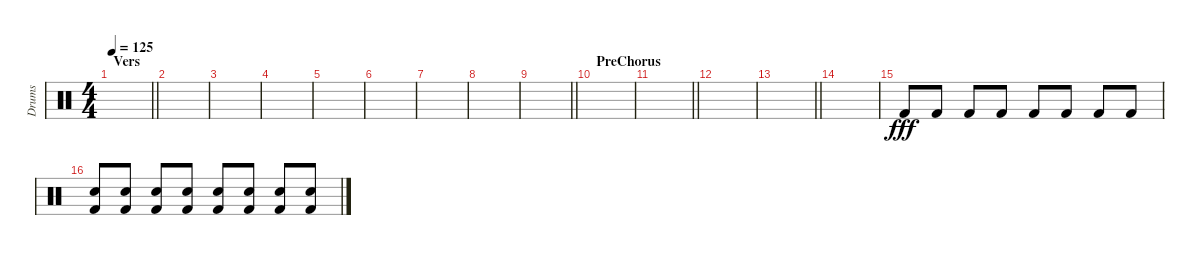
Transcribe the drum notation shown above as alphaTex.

\track ("Drums" "Drums") {instrument percussion}
\staff {score}
\articulation defaults
\ts (4 4)
\section ("" "Vers")
\tempo 125
\clef neutral
\barLineRight lightlight
\ks c
|
\section ("" "")
|
|
|
|
|
|
|
\barLineRight lightlight
|
\section ("" "PreChorus")
|
\barLineRight lightlight
|
|
\barLineRight lightlight
|
|
"Kick (hit) 2".8{dy fff volume 6} "Kick (hit) 2".8{volume 14} "Kick (hit) 2".8 "Kick (hit) 2".8 "Kick (hit) 2".8 "Kick (hit) 2".8 "Kick (hit) 2".8 "Kick (hit) 2".8 |
("Electric Snare (hit)" "Kick (hit) 2").8 ("Electric Snare (hit)" "Kick (hit) 2").8 ("Electric Snare (hit)" "Kick (hit) 2").8 ("Electric Snare (hit)" "Kick (hit) 2").8 ("Electric Snare (hit)" "Kick (hit) 2").8 ("Electric Snare (hit)" "Kick (hit) 2").8 ("Electric Snare (hit)" "Kick (hit) 2").8 ("Electric Snare (hit)" "Kick (hit) 2").8
